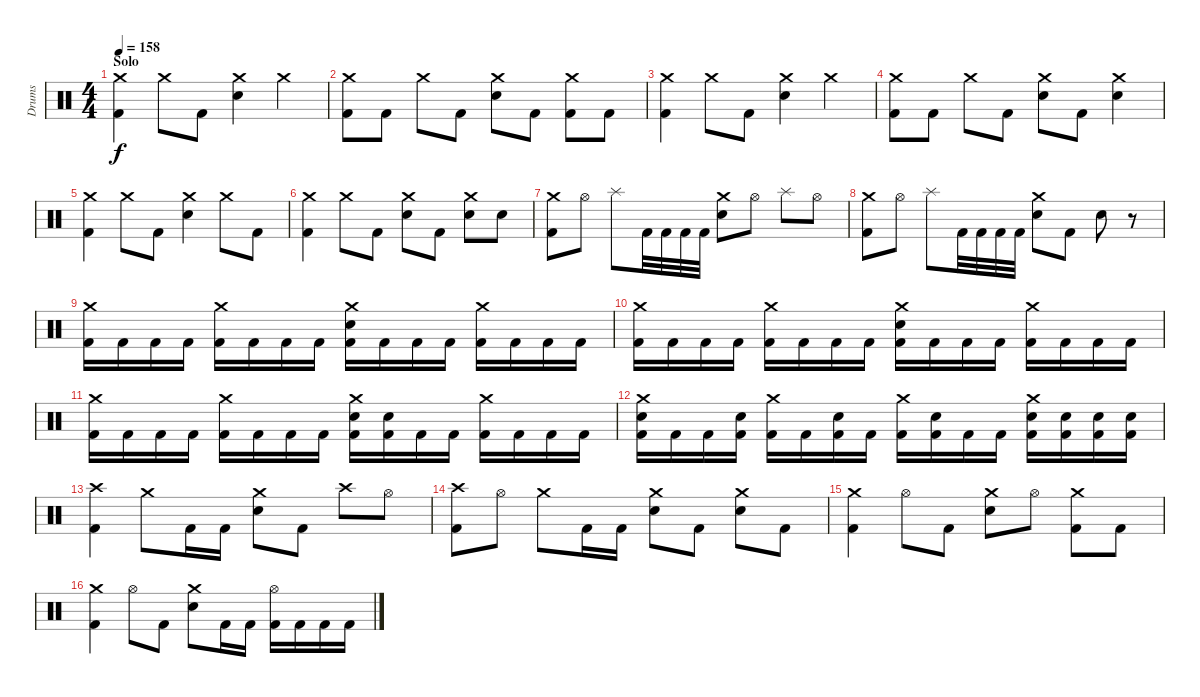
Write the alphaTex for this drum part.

\track ("Drums" "Drums") {instrument percussion}
\staff {score}
\articulation defaults
\ts (4 4)
\section ("" "Solo")
\tempo 158
\clef neutral
\ks c
("Crash medium (hit)" "Kick (hit) 2").4{dy f} "Crash medium (hit)".8 "Kick (hit) 2".8 ("Crash medium (hit)" "Electric Snare (hit)").4 "Crash medium (hit)".4 |
("Crash medium (hit)" "Kick (hit) 2").8 "Kick (hit) 2".8 "Crash medium (hit)".8 "Kick (hit) 2".8 ("Crash medium (hit)" "Electric Snare (hit)").8 "Kick (hit) 2".8 ("Crash medium (hit)" "Kick (hit) 2").8 "Kick (hit) 2".8 |
("Crash medium (hit)" "Kick (hit) 2").4 "Crash medium (hit)".8 "Kick (hit) 2".8 ("Crash medium (hit)" "Electric Snare (hit)").4 "Crash medium (hit)".4 |
("Crash medium (hit)" "Kick (hit) 2").8 "Kick (hit) 2".8 "Crash medium (hit)".8 "Kick (hit) 2".8 ("Crash medium (hit)" "Electric Snare (hit)").8 "Kick (hit) 2".8 ("Crash medium (hit)" "Electric Snare (hit)").4 |
("Crash medium (hit)" "Kick (hit) 2").4 "Crash medium (hit)".8 "Kick (hit) 2".8 ("Crash medium (hit)" "Electric Snare (hit)").4 "Crash medium (hit)".8 "Kick (hit) 2".8 |
("Crash medium (hit)" "Kick (hit) 2").4 "Crash medium (hit)".8 "Kick (hit) 2".8 ("Crash medium (hit)" "Electric Snare (hit)").8 "Kick (hit) 2".8 ("Crash medium (hit)" "Electric Snare (hit)").8 "Electric Snare (hit)".8 |
("Crash medium (hit)" "Kick (hit) 2").8 "Hi-Hat (open)".8 "Splash (hit)".8 "Kick (hit) 2".32 "Kick (hit) 2".32 "Kick (hit) 2".32 "Kick (hit) 2".32 ("Crash medium (hit)" "Electric Snare (hit)").8 "Hi-Hat (open)".8 "Splash (hit)".8 "Hi-Hat (open)".8 |
("Crash medium (hit)" "Kick (hit) 2").8 "Hi-Hat (open)".8 "Splash (hit)".8 "Kick (hit) 2".32 "Kick (hit) 2".32 "Kick (hit) 2".32 "Kick (hit) 2".32 ("Crash medium (hit)" "Electric Snare (hit)").8 "Kick (hit) 2".8 "Electric Snare (hit)".8 r.8 |
("Crash medium (hit)" "Kick (hit) 2").16 "Kick (hit) 2".16 "Kick (hit) 2".16 "Kick (hit) 2".16 ("Crash medium (hit)" "Kick (hit) 2").16 "Kick (hit) 2".16 "Kick (hit) 2".16 "Kick (hit) 2".16 ("Crash medium (hit)" "Electric Snare (hit)" "Kick (hit) 2").16 "Kick (hit) 2".16 "Kick (hit) 2".16 "Kick (hit) 2".16 ("Crash medium (hit)" "Kick (hit) 2").16 "Kick (hit) 2".16 "Kick (hit) 2".16 "Kick (hit) 2".16 |
("Crash medium (hit)" "Kick (hit) 2").16 "Kick (hit) 2".16 "Kick (hit) 2".16 "Kick (hit) 2".16 ("Crash medium (hit)" "Kick (hit) 2").16 "Kick (hit) 2".16 "Kick (hit) 2".16 "Kick (hit) 2".16 ("Crash medium (hit)" "Electric Snare (hit)" "Kick (hit) 2").16 "Kick (hit) 2".16 "Kick (hit) 2".16 "Kick (hit) 2".16 ("Crash medium (hit)" "Kick (hit) 2").16 "Kick (hit) 2".16 "Kick (hit) 2".16 "Kick (hit) 2".16 |
("Crash medium (hit)" "Kick (hit) 2").16 "Kick (hit) 2".16 "Kick (hit) 2".16 "Kick (hit) 2".16 ("Crash medium (hit)" "Kick (hit) 2").16 "Kick (hit) 2".16 "Kick (hit) 2".16 "Kick (hit) 2".16 ("Crash medium (hit)" "Electric Snare (hit)" "Kick (hit) 2").16 ("Electric Snare (hit)" "Kick (hit) 2").16 "Kick (hit) 2".16 "Kick (hit) 2".16 ("Crash medium (hit)" "Kick (hit) 2").16 "Kick (hit) 2".16 "Kick (hit) 2".16 "Kick (hit) 2".16 |
("Crash medium (hit)" "Electric Snare (hit)" "Kick (hit) 2").16 "Kick (hit) 2".16 "Kick (hit) 2".16 ("Electric Snare (hit)" "Kick (hit) 2").16 ("Crash medium (hit)" "Kick (hit) 2").16 "Kick (hit) 2".16 ("Electric Snare (hit)" "Kick (hit) 2").16 "Kick (hit) 2".16 ("Crash medium (hit)" "Kick (hit) 2").16 ("Electric Snare (hit)" "Kick (hit) 2").16 "Kick (hit) 2".16 "Kick (hit) 2".16 ("Crash medium (hit)" "Electric Snare (hit)" "Kick (hit) 2").16 ("Electric Snare (hit)" "Kick (hit) 2").16 ("Electric Snare (hit)" "Kick (hit) 2").16 ("Electric Snare (hit)" "Kick (hit) 2").16 |
("Crash high (hit)" "Kick (hit) 2").4 "Crash medium (hit)".8 "Kick (hit) 2".16 "Kick (hit) 2".16 ("Crash medium (hit)" "Electric Snare (hit)").8 "Kick (hit) 2".8 "Crash high (hit)".8 "Hi-Hat (open)".8 |
("Crash high (hit)" "Kick (hit) 2").8 "Hi-Hat (open)".8 "Crash medium (hit)".8 "Kick (hit) 2".16 "Kick (hit) 2".16 ("Crash medium (hit)" "Electric Snare (hit)").8 "Kick (hit) 2".8 ("Crash medium (hit)" "Electric Snare (hit)").8 "Kick (hit) 2".8 |
("Crash medium (hit)" "Kick (hit) 2").4 "Hi-Hat (open)".8 "Kick (hit) 2".8 ("Crash medium (hit)" "Electric Snare (hit)").8 "Hi-Hat (open)".8 ("Crash medium (hit)" "Kick (hit) 2").8 "Kick (hit) 2".8 |
("Crash medium (hit)" "Kick (hit) 2").4 "Hi-Hat (open)".8 "Kick (hit) 2".8 ("Crash medium (hit)" "Electric Snare (hit)").8 "Kick (hit) 2".16 "Kick (hit) 2".16 ("Hi-Hat (open)" "Kick (hit) 2").16 "Kick (hit) 2".16 "Kick (hit) 2".16 "Kick (hit) 2".16
